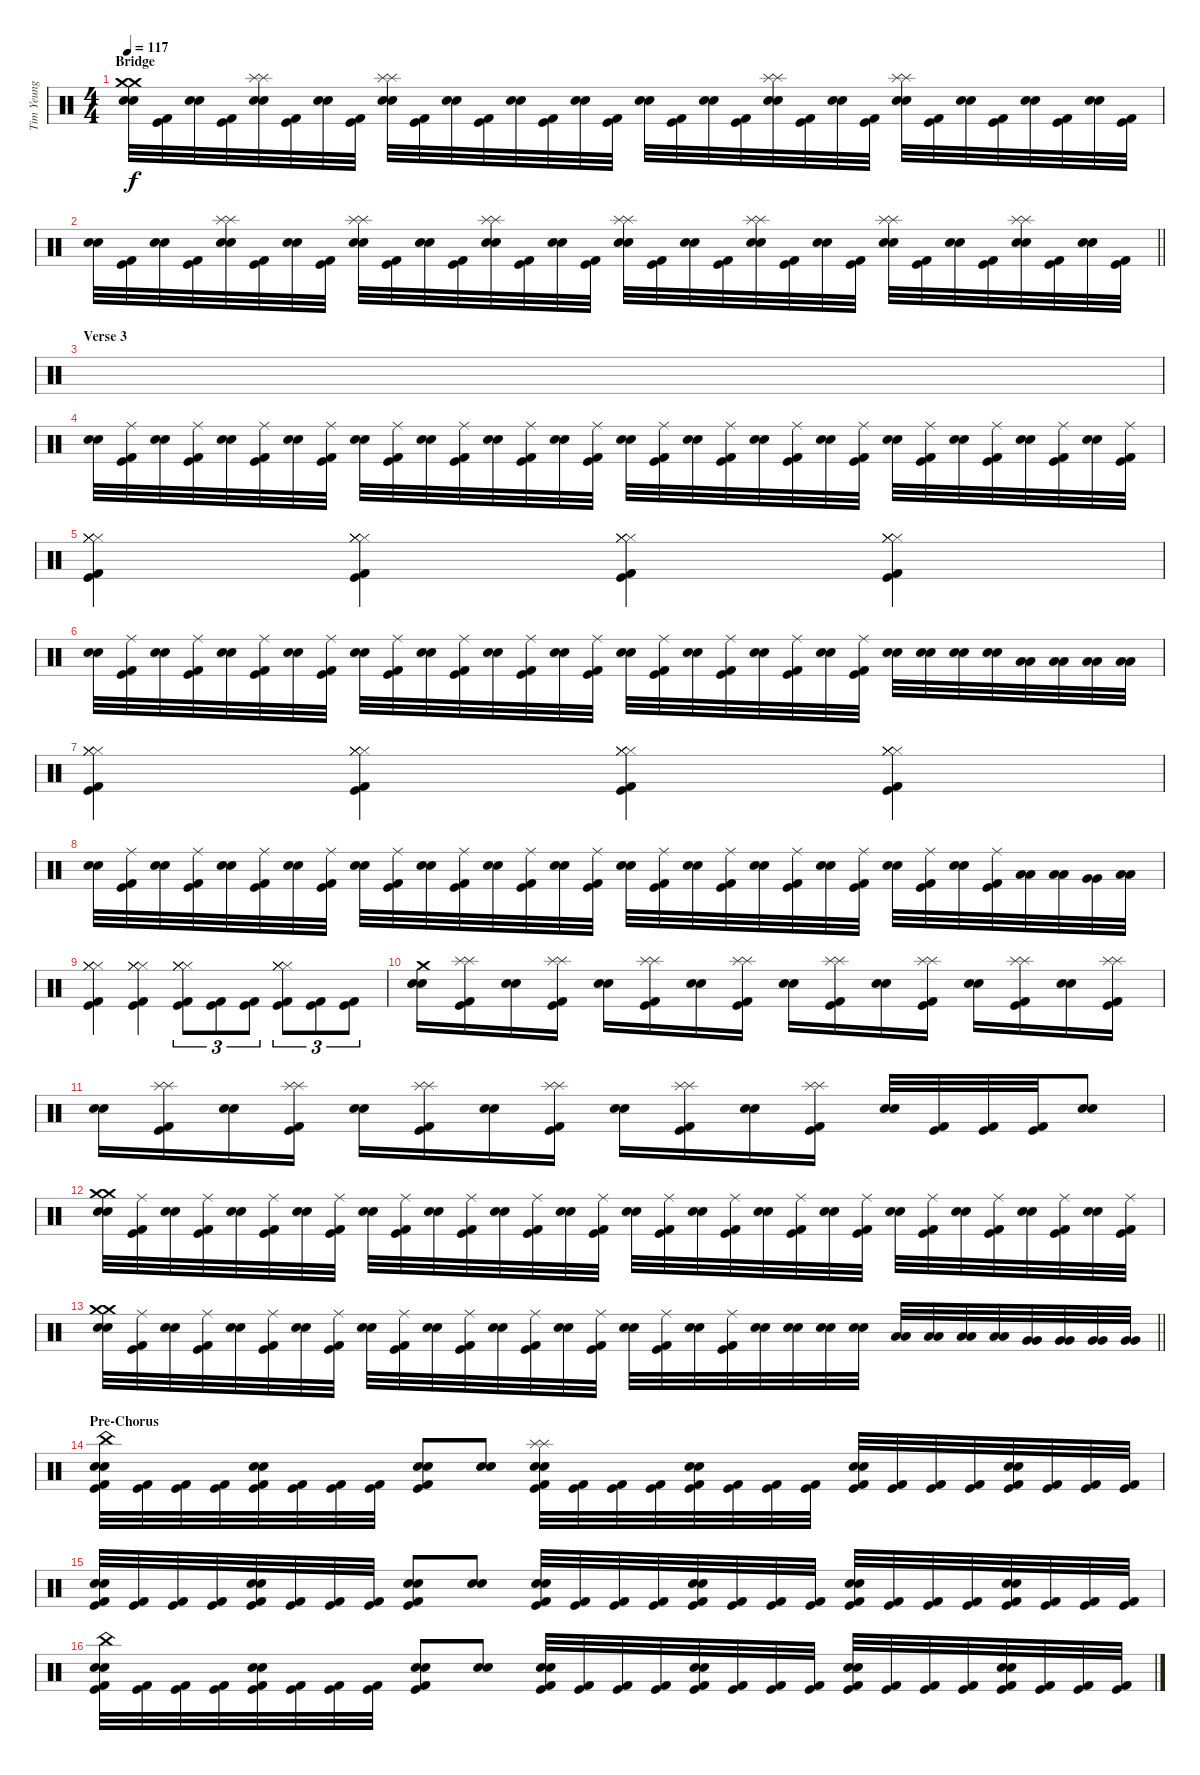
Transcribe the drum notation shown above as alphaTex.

\track ("Tim Yeung" "Tim Yeung") {instrument percussion}
\staff {score}
\articulation defaults
\ts (4 4)
\section ("" "Bridge")
\tempo 117
\clef neutral
\ks c
("Crash medium (hit)" "Crash medium (hit)" "Electric Snare (hit)" "Snare (hit) 2").32{dy f} ("Kick (hit)" "Kick (hit) 2").32 ("Electric Snare (hit)" "Snare (hit) 2").32 ("Kick (hit)" "Kick (hit) 2").32 ("Splash (hit)" "Splash (hit)" "Electric Snare (hit)" "Snare (hit) 2").32 ("Kick (hit)" "Kick (hit) 2").32 ("Electric Snare (hit)" "Snare (hit) 2").32 ("Kick (hit)" "Kick (hit) 2").32 ("Splash (hit)" "Splash (hit)" "Electric Snare (hit)" "Snare (hit) 2").32 ("Kick (hit)" "Kick (hit) 2").32 ("Electric Snare (hit)" "Snare (hit) 2").32 ("Kick (hit)" "Kick (hit) 2").32 ("Electric Snare (hit)" "Snare (hit) 2").32 ("Kick (hit)" "Kick (hit) 2").32 ("Electric Snare (hit)" "Snare (hit) 2").32 ("Kick (hit)" "Kick (hit) 2").32 ("Electric Snare (hit)" "Snare (hit) 2").32 ("Kick (hit)" "Kick (hit) 2").32 ("Electric Snare (hit)" "Snare (hit) 2").32 ("Kick (hit)" "Kick (hit) 2").32 ("Splash (hit)" "Splash (hit)" "Electric Snare (hit)" "Snare (hit) 2").32 ("Kick (hit)" "Kick (hit) 2").32 ("Electric Snare (hit)" "Snare (hit) 2").32 ("Kick (hit)" "Kick (hit) 2").32 ("Splash (hit)" "Splash (hit)" "Electric Snare (hit)" "Snare (hit) 2").32 ("Kick (hit)" "Kick (hit) 2").32 ("Electric Snare (hit)" "Snare (hit) 2").32 ("Kick (hit)" "Kick (hit) 2").32 ("Electric Snare (hit)" "Snare (hit) 2").32 ("Kick (hit)" "Kick (hit) 2").32 ("Electric Snare (hit)" "Snare (hit) 2").32 ("Kick (hit)" "Kick (hit) 2").32 |
\barLineRight lightlight
("Electric Snare (hit)" "Snare (hit) 2").32 ("Kick (hit)" "Kick (hit) 2").32 ("Electric Snare (hit)" "Snare (hit) 2").32 ("Kick (hit)" "Kick (hit) 2").32 ("Splash (hit)" "Splash (hit)" "Electric Snare (hit)" "Snare (hit) 2").32 ("Kick (hit)" "Kick (hit) 2").32 ("Electric Snare (hit)" "Snare (hit) 2").32 ("Kick (hit)" "Kick (hit) 2").32 ("Splash (hit)" "Splash (hit)" "Electric Snare (hit)" "Snare (hit) 2").32 ("Kick (hit)" "Kick (hit) 2").32 ("Electric Snare (hit)" "Snare (hit) 2").32 ("Kick (hit)" "Kick (hit) 2").32 ("Splash (hit)" "Splash (hit)" "Electric Snare (hit)" "Snare (hit) 2").32 ("Kick (hit)" "Kick (hit) 2").32 ("Electric Snare (hit)" "Snare (hit) 2").32 ("Kick (hit)" "Kick (hit) 2").32 ("Splash (hit)" "Splash (hit)" "Electric Snare (hit)" "Snare (hit) 2").32 ("Kick (hit)" "Kick (hit) 2").32 ("Electric Snare (hit)" "Snare (hit) 2").32 ("Kick (hit)" "Kick (hit) 2").32 ("Splash (hit)" "Splash (hit)" "Electric Snare (hit)" "Snare (hit) 2").32 ("Kick (hit)" "Kick (hit) 2").32 ("Electric Snare (hit)" "Snare (hit) 2").32 ("Kick (hit)" "Kick (hit) 2").32 ("Splash (hit)" "Splash (hit)" "Electric Snare (hit)" "Snare (hit) 2").32 ("Kick (hit)" "Kick (hit) 2").32 ("Electric Snare (hit)" "Snare (hit) 2").32 ("Kick (hit)" "Kick (hit) 2").32 ("Splash (hit)" "Splash (hit)" "Electric Snare (hit)" "Snare (hit) 2").32 ("Kick (hit)" "Kick (hit) 2").32 ("Electric Snare (hit)" "Snare (hit) 2").32 ("Kick (hit)" "Kick (hit) 2").32 |
\section ("" "Verse 3")
|
("Electric Snare (hit)" "Snare (hit) 2").32 ("Ride (middle)" "Kick (hit)" "Kick (hit) 2").32 ("Electric Snare (hit)" "Snare (hit) 2").32 ("Ride (middle)" "Kick (hit)" "Kick (hit) 2").32 ("Electric Snare (hit)" "Snare (hit) 2").32 ("Ride (middle)" "Kick (hit)" "Kick (hit) 2").32 ("Electric Snare (hit)" "Snare (hit) 2").32 ("Ride (middle)" "Kick (hit)" "Kick (hit) 2").32 ("Electric Snare (hit)" "Snare (hit) 2").32 ("Ride (middle)" "Kick (hit)" "Kick (hit) 2").32 ("Electric Snare (hit)" "Snare (hit) 2").32 ("Ride (middle)" "Kick (hit)" "Kick (hit) 2").32 ("Electric Snare (hit)" "Snare (hit) 2").32 ("Ride (middle)" "Kick (hit)" "Kick (hit) 2").32 ("Electric Snare (hit)" "Snare (hit) 2").32 ("Ride (middle)" "Kick (hit)" "Kick (hit) 2").32 ("Electric Snare (hit)" "Snare (hit) 2").32 ("Ride (middle)" "Kick (hit)" "Kick (hit) 2").32 ("Electric Snare (hit)" "Snare (hit) 2").32 ("Ride (middle)" "Kick (hit)" "Kick (hit) 2").32 ("Electric Snare (hit)" "Snare (hit) 2").32 ("Ride (middle)" "Kick (hit)" "Kick (hit) 2").32 ("Electric Snare (hit)" "Snare (hit) 2").32 ("Ride (middle)" "Kick (hit)" "Kick (hit) 2").32 ("Electric Snare (hit)" "Snare (hit) 2").32 ("Ride (middle)" "Kick (hit)" "Kick (hit) 2").32 ("Electric Snare (hit)" "Snare (hit) 2").32 ("Ride (middle)" "Kick (hit)" "Kick (hit) 2").32 ("Electric Snare (hit)" "Snare (hit) 2").32 ("Ride (middle)" "Kick (hit)" "Kick (hit) 2").32 ("Electric Snare (hit)" "Snare (hit) 2").32 ("Ride (middle)" "Kick (hit)" "Kick (hit) 2").32 |
("Hi-Hat (closed)" "Hi-Hat (closed)" "Hi-Hat (closed)" "Hi-Hat (closed)" "Kick (hit)" "Kick (hit) 2").4 ("Hi-Hat (closed)" "Hi-Hat (closed)" "Hi-Hat (closed)" "Hi-Hat (closed)" "Kick (hit)" "Kick (hit) 2").4 ("Hi-Hat (closed)" "Hi-Hat (closed)" "Hi-Hat (closed)" "Hi-Hat (closed)" "Kick (hit)" "Kick (hit) 2").4 ("Hi-Hat (closed)" "Hi-Hat (closed)" "Hi-Hat (closed)" "Hi-Hat (closed)" "Kick (hit)" "Kick (hit) 2").4 |
("Electric Snare (hit)" "Snare (hit) 2").32 ("Ride (middle)" "Kick (hit)" "Kick (hit) 2").32 ("Electric Snare (hit)" "Snare (hit) 2").32 ("Ride (middle)" "Kick (hit)" "Kick (hit) 2").32 ("Electric Snare (hit)" "Snare (hit) 2").32 ("Ride (middle)" "Kick (hit)" "Kick (hit) 2").32 ("Electric Snare (hit)" "Snare (hit) 2").32 ("Ride (middle)" "Kick (hit)" "Kick (hit) 2").32 ("Electric Snare (hit)" "Snare (hit) 2").32 ("Ride (middle)" "Kick (hit)" "Kick (hit) 2").32 ("Electric Snare (hit)" "Snare (hit) 2").32 ("Ride (middle)" "Kick (hit)" "Kick (hit) 2").32 ("Electric Snare (hit)" "Snare (hit) 2").32 ("Ride (middle)" "Kick (hit)" "Kick (hit) 2").32 ("Electric Snare (hit)" "Snare (hit) 2").32 ("Ride (middle)" "Kick (hit)" "Kick (hit) 2").32 ("Electric Snare (hit)" "Snare (hit) 2").32 ("Ride (middle)" "Kick (hit)" "Kick (hit) 2").32 ("Electric Snare (hit)" "Snare (hit) 2").32 ("Ride (middle)" "Kick (hit)" "Kick (hit) 2").32 ("Electric Snare (hit)" "Snare (hit) 2").32 ("Ride (middle)" "Kick (hit)" "Kick (hit) 2").32 ("Electric Snare (hit)" "Snare (hit) 2").32 ("Ride (middle)" "Kick (hit)" "Kick (hit) 2").32 ("Electric Snare (hit)" "Snare (hit) 2").32 ("Electric Snare (hit)" "Snare (hit) 2").32 ("Electric Snare (hit)" "Snare (hit) 2").32 ("Electric Snare (hit)" "Snare (hit) 2").32 ("Low Tom (hit)" "Low Tom (hit)").32 ("Low Tom (hit)" "Low Tom (hit)").32 ("Low Tom (hit)" "Low Tom (hit)").32 ("Low Tom (hit)" "Low Tom (hit)").32 |
("Hi-Hat (closed)" "Hi-Hat (closed)" "Hi-Hat (closed)" "Hi-Hat (closed)" "Kick (hit)" "Kick (hit) 2").4 ("Hi-Hat (closed)" "Hi-Hat (closed)" "Hi-Hat (closed)" "Hi-Hat (closed)" "Kick (hit)" "Kick (hit) 2").4 ("Hi-Hat (closed)" "Hi-Hat (closed)" "Hi-Hat (closed)" "Hi-Hat (closed)" "Kick (hit)" "Kick (hit) 2").4 ("Hi-Hat (closed)" "Hi-Hat (closed)" "Hi-Hat (closed)" "Hi-Hat (closed)" "Kick (hit)" "Kick (hit) 2").4 |
("Electric Snare (hit)" "Snare (hit) 2").32 ("Ride (middle)" "Kick (hit)" "Kick (hit) 2").32 ("Electric Snare (hit)" "Snare (hit) 2").32 ("Ride (middle)" "Kick (hit)" "Kick (hit) 2").32 ("Electric Snare (hit)" "Snare (hit) 2").32 ("Ride (middle)" "Kick (hit)" "Kick (hit) 2").32 ("Electric Snare (hit)" "Snare (hit) 2").32 ("Ride (middle)" "Kick (hit)" "Kick (hit) 2").32 ("Electric Snare (hit)" "Snare (hit) 2").32 ("Ride (middle)" "Kick (hit)" "Kick (hit) 2").32 ("Electric Snare (hit)" "Snare (hit) 2").32 ("Ride (middle)" "Kick (hit)" "Kick (hit) 2").32 ("Electric Snare (hit)" "Snare (hit) 2").32 ("Ride (middle)" "Kick (hit)" "Kick (hit) 2").32 ("Electric Snare (hit)" "Snare (hit) 2").32 ("Ride (middle)" "Kick (hit)" "Kick (hit) 2").32 ("Electric Snare (hit)" "Snare (hit) 2").32 ("Ride (middle)" "Kick (hit)" "Kick (hit) 2").32 ("Electric Snare (hit)" "Snare (hit) 2").32 ("Ride (middle)" "Kick (hit)" "Kick (hit) 2").32 ("Electric Snare (hit)" "Snare (hit) 2").32 ("Ride (middle)" "Kick (hit)" "Kick (hit) 2").32 ("Electric Snare (hit)" "Snare (hit) 2").32 ("Ride (middle)" "Kick (hit)" "Kick (hit) 2").32 ("Electric Snare (hit)" "Snare (hit) 2").32 ("Ride (middle)" "Kick (hit)" "Kick (hit) 2").32 ("Electric Snare (hit)" "Snare (hit) 2").32 ("Ride (middle)" "Kick (hit)" "Kick (hit) 2").32 ("Low Tom (hit)" "Low Tom (hit)").32 ("Low Tom (hit)" "Low Tom (hit)").32 ("Very Low Tom (hit)" "Very Low Tom (hit)").32 ("Low Floor Tom (hit)" "Low Floor Tom (hit)").32 |
("Hi-Hat (closed)" "Hi-Hat (closed)" "Hi-Hat (closed)" "Hi-Hat (closed)" "Kick (hit)" "Kick (hit) 2").4 ("Hi-Hat (closed)" "Hi-Hat (closed)" "Hi-Hat (closed)" "Hi-Hat (closed)" "Kick (hit)" "Kick (hit) 2").4 ("Hi-Hat (closed)" "Hi-Hat (closed)" "Hi-Hat (closed)" "Hi-Hat (closed)" "Kick (hit)" "Kick (hit) 2").8{tu (3 2)} ("Kick (hit)" "Kick (hit) 2").8{tu (3 2)} ("Kick (hit)" "Kick (hit) 2").8{tu (3 2)} ("Hi-Hat (closed)" "Hi-Hat (closed)" "Hi-Hat (closed)" "Hi-Hat (closed)" "Kick (hit)" "Kick (hit) 2").8{tu (3 2)} ("Kick (hit)" "Kick (hit) 2").8{tu (3 2)} ("Kick (hit)" "Kick (hit) 2").8{tu (3 2)} |
("Crash medium (hit)" "Electric Snare (hit)" "Snare (hit) 2").16 ("Splash (hit)" "Splash (hit)" "Kick (hit)" "Kick (hit) 2").16 ("Electric Snare (hit)" "Snare (hit) 2").16 ("Splash (hit)" "Splash (hit)" "Kick (hit)" "Kick (hit) 2").16 ("Electric Snare (hit)" "Snare (hit) 2").16 ("Splash (hit)" "Splash (hit)" "Kick (hit)" "Kick (hit) 2").16 ("Electric Snare (hit)" "Snare (hit) 2").16 ("Splash (hit)" "Splash (hit)" "Kick (hit)" "Kick (hit) 2").16 ("Electric Snare (hit)" "Snare (hit) 2").16 ("Splash (hit)" "Splash (hit)" "Kick (hit)" "Kick (hit) 2").16 ("Electric Snare (hit)" "Snare (hit) 2").16 ("Splash (hit)" "Splash (hit)" "Kick (hit)" "Kick (hit) 2").16 ("Electric Snare (hit)" "Snare (hit) 2").16 ("Splash (hit)" "Splash (hit)" "Kick (hit)" "Kick (hit) 2").16 ("Electric Snare (hit)" "Snare (hit) 2").16 ("Splash (hit)" "Splash (hit)" "Kick (hit)" "Kick (hit) 2").16 |
("Electric Snare (hit)" "Snare (hit) 2").16 ("Splash (hit)" "Splash (hit)" "Kick (hit)" "Kick (hit) 2").16 ("Electric Snare (hit)" "Snare (hit) 2").16 ("Splash (hit)" "Splash (hit)" "Kick (hit)" "Kick (hit) 2").16 ("Electric Snare (hit)" "Snare (hit) 2").16 ("Splash (hit)" "Splash (hit)" "Kick (hit)" "Kick (hit) 2").16 ("Electric Snare (hit)" "Snare (hit) 2").16 ("Splash (hit)" "Splash (hit)" "Kick (hit)" "Kick (hit) 2").16 ("Electric Snare (hit)" "Snare (hit) 2").16 ("Splash (hit)" "Splash (hit)" "Kick (hit)" "Kick (hit) 2").16 ("Electric Snare (hit)" "Snare (hit) 2").16 ("Splash (hit)" "Splash (hit)" "Kick (hit)" "Kick (hit) 2").16 ("Electric Snare (hit)" "Snare (hit) 2").32 ("Kick (hit)" "Kick (hit) 2").32 ("Kick (hit)" "Kick (hit) 2").32 ("Kick (hit)" "Kick (hit) 2").32 ("Electric Snare (hit)" "Snare (hit) 2").8 |
("Crash medium (hit)" "Crash medium (hit)" "Electric Snare (hit)" "Snare (hit) 2").32 ("Ride (middle)" "Kick (hit)" "Kick (hit) 2").32 ("Electric Snare (hit)" "Snare (hit) 2").32 ("Ride (middle)" "Kick (hit)" "Kick (hit) 2").32 ("Electric Snare (hit)" "Snare (hit) 2").32 ("Ride (middle)" "Kick (hit)" "Kick (hit) 2").32 ("Electric Snare (hit)" "Snare (hit) 2").32 ("Ride (middle)" "Kick (hit)" "Kick (hit) 2").32 ("Electric Snare (hit)" "Snare (hit) 2").32 ("Ride (middle)" "Kick (hit)" "Kick (hit) 2").32 ("Electric Snare (hit)" "Snare (hit) 2").32 ("Ride (middle)" "Kick (hit)" "Kick (hit) 2").32 ("Electric Snare (hit)" "Snare (hit) 2").32 ("Ride (middle)" "Kick (hit)" "Kick (hit) 2").32 ("Electric Snare (hit)" "Snare (hit) 2").32 ("Ride (middle)" "Kick (hit)" "Kick (hit) 2").32 ("Electric Snare (hit)" "Snare (hit) 2").32 ("Ride (middle)" "Kick (hit)" "Kick (hit) 2").32 ("Electric Snare (hit)" "Snare (hit) 2").32 ("Ride (middle)" "Kick (hit)" "Kick (hit) 2").32 ("Electric Snare (hit)" "Snare (hit) 2").32 ("Ride (middle)" "Kick (hit)" "Kick (hit) 2").32 ("Electric Snare (hit)" "Snare (hit) 2").32 ("Ride (middle)" "Kick (hit)" "Kick (hit) 2").32 ("Electric Snare (hit)" "Snare (hit) 2").32 ("Ride (middle)" "Kick (hit)" "Kick (hit) 2").32 ("Electric Snare (hit)" "Snare (hit) 2").32 ("Ride (middle)" "Kick (hit)" "Kick (hit) 2").32 ("Electric Snare (hit)" "Snare (hit) 2").32 ("Ride (middle)" "Kick (hit)" "Kick (hit) 2").32 ("Electric Snare (hit)" "Snare (hit) 2").32 ("Ride (middle)" "Kick (hit)" "Kick (hit) 2").32 |
\barLineRight lightlight
("Crash medium (hit)" "Crash medium (hit)" "Electric Snare (hit)" "Snare (hit) 2").32 ("Ride (middle)" "Kick (hit)" "Kick (hit) 2").32 ("Electric Snare (hit)" "Snare (hit) 2").32 ("Ride (middle)" "Kick (hit)" "Kick (hit) 2").32 ("Electric Snare (hit)" "Snare (hit) 2").32 ("Ride (middle)" "Kick (hit)" "Kick (hit) 2").32 ("Electric Snare (hit)" "Snare (hit) 2").32 ("Ride (middle)" "Kick (hit)" "Kick (hit) 2").32 ("Electric Snare (hit)" "Snare (hit) 2").32 ("Ride (middle)" "Kick (hit)" "Kick (hit) 2").32 ("Electric Snare (hit)" "Snare (hit) 2").32 ("Ride (middle)" "Kick (hit)" "Kick (hit) 2").32 ("Electric Snare (hit)" "Snare (hit) 2").32 ("Ride (middle)" "Kick (hit)" "Kick (hit) 2").32 ("Electric Snare (hit)" "Snare (hit) 2").32 ("Ride (middle)" "Kick (hit)" "Kick (hit) 2").32 ("Electric Snare (hit)" "Snare (hit) 2").32 ("Ride (middle)" "Kick (hit)" "Kick (hit) 2").32 ("Electric Snare (hit)" "Snare (hit) 2").32 ("Ride (middle)" "Kick (hit)" "Kick (hit) 2").32 ("Electric Snare (hit)" "Snare (hit) 2").32 ("Electric Snare (hit)" "Snare (hit) 2").32 ("Electric Snare (hit)" "Snare (hit) 2").32 ("Electric Snare (hit)" "Snare (hit) 2").32 ("Low Tom (hit)" "Low Tom (hit)").32 ("Low Tom (hit)" "Low Tom (hit)").32 ("Low Tom (hit)" "Low Tom (hit)").32 ("Low Tom (hit)" "Low Tom (hit)").32 ("Very Low Tom (hit)" "Very Low Tom (hit)").32 ("Very Low Tom (hit)" "Very Low Tom (hit)").32 ("Very Low Tom (hit)" "Very Low Tom (hit)").32 ("Very Low Tom (hit)" "Very Low Tom (hit)").32 |
\section ("" "Pre-Chorus")
("China (hit)" "Electric Snare (hit)" "Snare (hit) 2" "Kick (hit)" "Kick (hit) 2").32 ("Kick (hit)" "Kick (hit) 2").32 ("Kick (hit)" "Kick (hit) 2").32 ("Kick (hit)" "Kick (hit) 2").32 ("Electric Snare (hit)" "Snare (hit) 2" "Kick (hit)" "Kick (hit) 2").32 ("Kick (hit)" "Kick (hit) 2").32 ("Kick (hit)" "Kick (hit) 2").32 ("Kick (hit)" "Kick (hit) 2").32 ("Electric Snare (hit)" "Snare (hit) 2" "Kick (hit)" "Kick (hit) 2").8 ("Electric Snare (hit)" "Snare (hit) 2").8 ("Splash (hit)" "Splash (hit)" "Electric Snare (hit)" "Snare (hit) 2" "Kick (hit)" "Kick (hit) 2").32 ("Kick (hit)" "Kick (hit) 2").32 ("Kick (hit)" "Kick (hit) 2").32 ("Kick (hit)" "Kick (hit) 2").32 ("Electric Snare (hit)" "Snare (hit) 2" "Kick (hit)" "Kick (hit) 2").32 ("Kick (hit)" "Kick (hit) 2").32 ("Kick (hit)" "Kick (hit) 2").32 ("Kick (hit)" "Kick (hit) 2").32 ("Electric Snare (hit)" "Snare (hit) 2" "Kick (hit)" "Kick (hit) 2").32 ("Kick (hit)" "Kick (hit) 2").32 ("Kick (hit)" "Kick (hit) 2").32 ("Kick (hit)" "Kick (hit) 2").32 ("Electric Snare (hit)" "Snare (hit) 2" "Kick (hit)" "Kick (hit) 2").32 ("Kick (hit)" "Kick (hit) 2").32 ("Kick (hit)" "Kick (hit) 2").32 ("Kick (hit)" "Kick (hit) 2").32 |
("Electric Snare (hit)" "Snare (hit) 2" "Kick (hit)" "Kick (hit) 2").32 ("Kick (hit)" "Kick (hit) 2").32 ("Kick (hit)" "Kick (hit) 2").32 ("Kick (hit)" "Kick (hit) 2").32 ("Electric Snare (hit)" "Snare (hit) 2" "Kick (hit)" "Kick (hit) 2").32 ("Kick (hit)" "Kick (hit) 2").32 ("Kick (hit)" "Kick (hit) 2").32 ("Kick (hit)" "Kick (hit) 2").32 ("Electric Snare (hit)" "Snare (hit) 2" "Kick (hit)" "Kick (hit) 2").8 ("Electric Snare (hit)" "Snare (hit) 2").8 ("Electric Snare (hit)" "Snare (hit) 2" "Kick (hit)" "Kick (hit) 2").32 ("Kick (hit)" "Kick (hit) 2").32 ("Kick (hit)" "Kick (hit) 2").32 ("Kick (hit)" "Kick (hit) 2").32 ("Electric Snare (hit)" "Snare (hit) 2" "Kick (hit)" "Kick (hit) 2").32 ("Kick (hit)" "Kick (hit) 2").32 ("Kick (hit)" "Kick (hit) 2").32 ("Kick (hit)" "Kick (hit) 2").32 ("Electric Snare (hit)" "Snare (hit) 2" "Kick (hit)" "Kick (hit) 2").32 ("Kick (hit)" "Kick (hit) 2").32 ("Kick (hit)" "Kick (hit) 2").32 ("Kick (hit)" "Kick (hit) 2").32 ("Electric Snare (hit)" "Snare (hit) 2" "Kick (hit)" "Kick (hit) 2").32 ("Kick (hit)" "Kick (hit) 2").32 ("Kick (hit)" "Kick (hit) 2").32 ("Kick (hit)" "Kick (hit) 2").32 |
("China (hit)" "Electric Snare (hit)" "Snare (hit) 2" "Kick (hit)" "Kick (hit) 2").32 ("Kick (hit)" "Kick (hit) 2").32 ("Kick (hit)" "Kick (hit) 2").32 ("Kick (hit)" "Kick (hit) 2").32 ("Electric Snare (hit)" "Snare (hit) 2" "Kick (hit)" "Kick (hit) 2").32 ("Kick (hit)" "Kick (hit) 2").32 ("Kick (hit)" "Kick (hit) 2").32 ("Kick (hit)" "Kick (hit) 2").32 ("Electric Snare (hit)" "Snare (hit) 2" "Kick (hit)" "Kick (hit) 2").8 ("Electric Snare (hit)" "Snare (hit) 2").8 ("Electric Snare (hit)" "Snare (hit) 2" "Kick (hit)" "Kick (hit) 2").32 ("Kick (hit)" "Kick (hit) 2").32 ("Kick (hit)" "Kick (hit) 2").32 ("Kick (hit)" "Kick (hit) 2").32 ("Electric Snare (hit)" "Snare (hit) 2" "Kick (hit)" "Kick (hit) 2").32 ("Kick (hit)" "Kick (hit) 2").32 ("Kick (hit)" "Kick (hit) 2").32 ("Kick (hit)" "Kick (hit) 2").32 ("Electric Snare (hit)" "Snare (hit) 2" "Kick (hit)" "Kick (hit) 2").32 ("Kick (hit)" "Kick (hit) 2").32 ("Kick (hit)" "Kick (hit) 2").32 ("Kick (hit)" "Kick (hit) 2").32 ("Electric Snare (hit)" "Snare (hit) 2" "Kick (hit)" "Kick (hit) 2").32 ("Kick (hit)" "Kick (hit) 2").32 ("Kick (hit)" "Kick (hit) 2").32 ("Kick (hit)" "Kick (hit) 2").32
